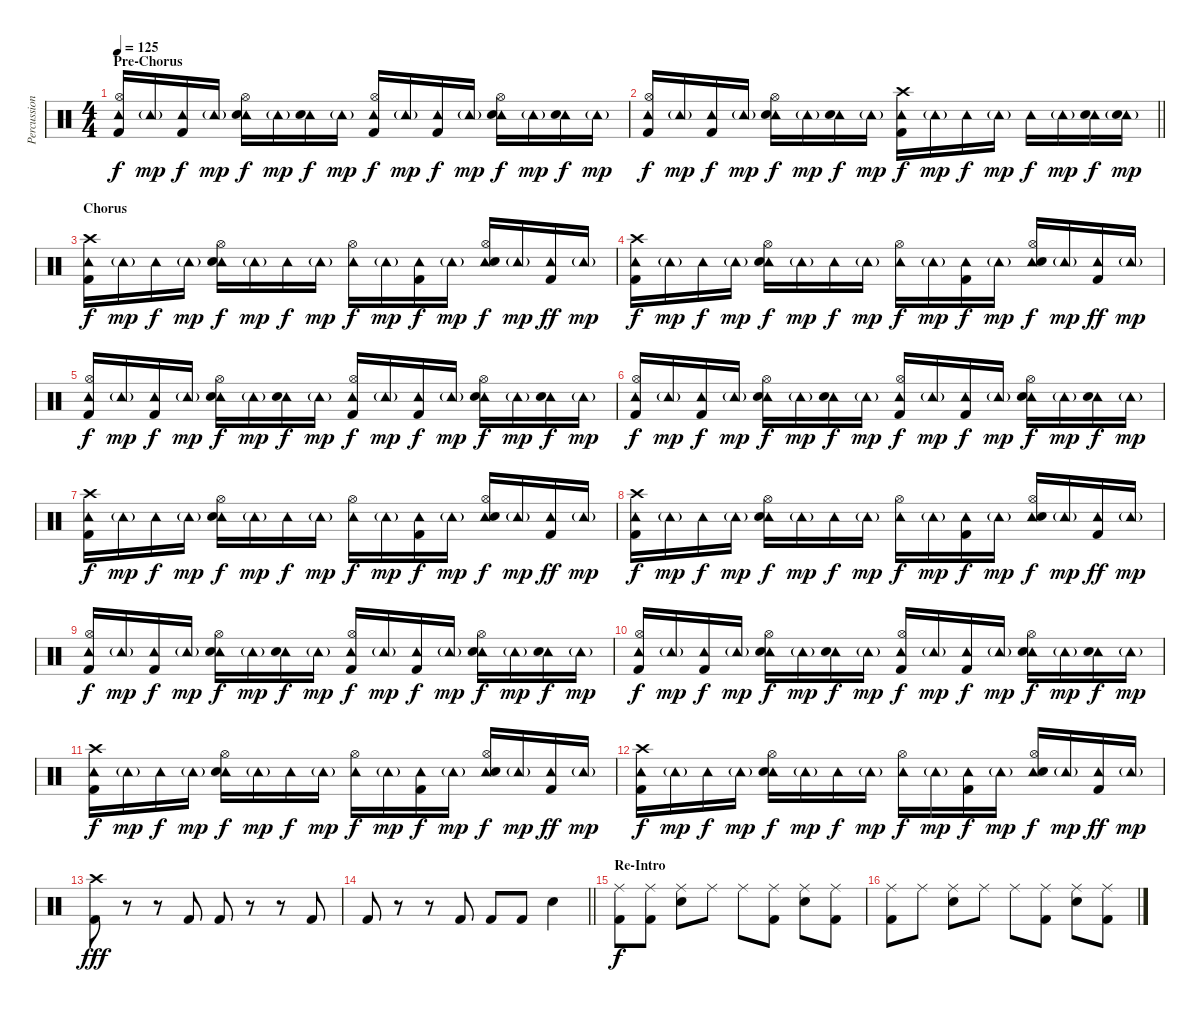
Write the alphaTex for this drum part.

\track ("Percussion" "Percussion") {instrument percussion}
\staff {score}
\articulation defaults
\ts (4 4)
\section ("" "Pre-Chorus")
\tempo 125
\clef neutral
\ks c
("Tambourine (hit)" "Hi-Hat (open)" "Kick (hit) 2").16{dy f} "Tambourine (hit)"{g}.16{dy mp} ("Tambourine (hit)" "Kick (hit) 2").16{dy f} "Tambourine (hit)"{g}.16{dy mp} ("Tambourine (hit)" "Hi-Hat (open)" "Electric Snare (hit)").16{dy f} "Tambourine (hit)"{g}.16{dy mp} ("Tambourine (hit)" "Electric Snare (hit)").16{dy f} "Tambourine (hit)"{g}.16{dy mp} ("Tambourine (hit)" "Hi-Hat (open)" "Kick (hit) 2").16{dy f} "Tambourine (hit)"{g}.16{dy mp} ("Tambourine (hit)" "Kick (hit) 2").16{dy f} "Tambourine (hit)"{g}.16{dy mp} ("Tambourine (hit)" "Hi-Hat (open)" "Electric Snare (hit)").16{dy f} "Tambourine (hit)"{g}.16{dy mp} ("Tambourine (hit)" "Electric Snare (hit)").16{dy f} "Tambourine (hit)"{g}.16{dy mp} |
\barLineRight lightlight
("Tambourine (hit)" "Hi-Hat (open)" "Kick (hit) 2").16{dy f} "Tambourine (hit)"{g}.16{dy mp} ("Tambourine (hit)" "Kick (hit) 2").16{dy f} "Tambourine (hit)"{g}.16{dy mp} ("Tambourine (hit)" "Hi-Hat (open)" "Electric Snare (hit)").16{dy f} "Tambourine (hit)"{g}.16{dy mp} ("Tambourine (hit)" "Electric Snare (hit)").16{dy f} "Tambourine (hit)"{g}.16{dy mp} ("Tambourine (hit)" "Crash high (hit)" "Kick (hit) 2").16{dy f} "Tambourine (hit)"{g}.16{dy mp} "Tambourine (hit)".16{dy f} "Tambourine (hit)"{g}.16{dy mp} "Tambourine (hit)".16{dy f} "Tambourine (hit)"{g}.16{dy mp} ("Tambourine (hit)" "Electric Snare (hit)").16{dy f} ("Tambourine (hit)"{g} "Electric Snare (hit)").16{dy mp} |
\section ("" "Chorus")
("Tambourine (hit)" "Crash high (hit)" "Kick (hit) 2").16{dy f} "Tambourine (hit)"{g}.16{dy mp} "Tambourine (hit)".16{dy f} "Tambourine (hit)"{g}.16{dy mp} ("Tambourine (hit)" "Hi-Hat (open)" "Electric Snare (hit)").16{dy f} "Tambourine (hit)"{g}.16{dy mp} "Tambourine (hit)".16{dy f} "Tambourine (hit)"{g}.16{dy mp} ("Tambourine (hit)" "Hi-Hat (open)").16{dy f} "Tambourine (hit)"{g}.16{dy mp} ("Tambourine (hit)" "Kick (hit) 2").16{dy f} "Tambourine (hit)"{g}.16{dy mp} ("Tambourine (hit)" "Hi-Hat (open)" "Electric Snare (hit)").16{dy f} "Tambourine (hit)"{g}.16{dy mp} ("Tambourine (hit)" "Kick (hit) 2").16{dy ff} "Tambourine (hit)"{g}.16{dy mp} |
("Tambourine (hit)" "Crash high (hit)" "Kick (hit) 2").16{dy f} "Tambourine (hit)"{g}.16{dy mp} "Tambourine (hit)".16{dy f} "Tambourine (hit)"{g}.16{dy mp} ("Tambourine (hit)" "Hi-Hat (open)" "Electric Snare (hit)").16{dy f} "Tambourine (hit)"{g}.16{dy mp} "Tambourine (hit)".16{dy f} "Tambourine (hit)"{g}.16{dy mp} ("Tambourine (hit)" "Hi-Hat (open)").16{dy f} "Tambourine (hit)"{g}.16{dy mp} ("Tambourine (hit)" "Kick (hit) 2").16{dy f} "Tambourine (hit)"{g}.16{dy mp} ("Tambourine (hit)" "Hi-Hat (open)" "Electric Snare (hit)").16{dy f} "Tambourine (hit)"{g}.16{dy mp} ("Tambourine (hit)" "Kick (hit) 2").16{dy ff} "Tambourine (hit)"{g}.16{dy mp} |
("Tambourine (hit)" "Hi-Hat (open)" "Kick (hit) 2").16{dy f} "Tambourine (hit)"{g}.16{dy mp} ("Tambourine (hit)" "Kick (hit) 2").16{dy f} "Tambourine (hit)"{g}.16{dy mp} ("Tambourine (hit)" "Hi-Hat (open)" "Electric Snare (hit)").16{dy f} "Tambourine (hit)"{g}.16{dy mp} ("Tambourine (hit)" "Electric Snare (hit)").16{dy f} "Tambourine (hit)"{g}.16{dy mp} ("Tambourine (hit)" "Hi-Hat (open)" "Kick (hit) 2").16{dy f} "Tambourine (hit)"{g}.16{dy mp} ("Tambourine (hit)" "Kick (hit) 2").16{dy f} "Tambourine (hit)"{g}.16{dy mp} ("Tambourine (hit)" "Hi-Hat (open)" "Electric Snare (hit)").16{dy f} "Tambourine (hit)"{g}.16{dy mp} ("Tambourine (hit)" "Electric Snare (hit)").16{dy f} "Tambourine (hit)"{g}.16{dy mp} |
("Tambourine (hit)" "Hi-Hat (open)" "Kick (hit) 2").16{dy f} "Tambourine (hit)"{g}.16{dy mp} ("Tambourine (hit)" "Kick (hit) 2").16{dy f} "Tambourine (hit)"{g}.16{dy mp} ("Tambourine (hit)" "Hi-Hat (open)" "Electric Snare (hit)").16{dy f} "Tambourine (hit)"{g}.16{dy mp} ("Tambourine (hit)" "Electric Snare (hit)").16{dy f} "Tambourine (hit)"{g}.16{dy mp} ("Tambourine (hit)" "Hi-Hat (open)" "Kick (hit) 2").16{dy f} "Tambourine (hit)"{g}.16{dy mp} ("Tambourine (hit)" "Kick (hit) 2").16{dy f} "Tambourine (hit)"{g}.16{dy mp} ("Tambourine (hit)" "Hi-Hat (open)" "Electric Snare (hit)").16{dy f} "Tambourine (hit)"{g}.16{dy mp} ("Tambourine (hit)" "Electric Snare (hit)").16{dy f} "Tambourine (hit)"{g}.16{dy mp} |
("Tambourine (hit)" "Crash high (hit)" "Kick (hit) 2").16{dy f} "Tambourine (hit)"{g}.16{dy mp} "Tambourine (hit)".16{dy f} "Tambourine (hit)"{g}.16{dy mp} ("Tambourine (hit)" "Hi-Hat (open)" "Electric Snare (hit)").16{dy f} "Tambourine (hit)"{g}.16{dy mp} "Tambourine (hit)".16{dy f} "Tambourine (hit)"{g}.16{dy mp} ("Tambourine (hit)" "Hi-Hat (open)").16{dy f} "Tambourine (hit)"{g}.16{dy mp} ("Tambourine (hit)" "Kick (hit) 2").16{dy f} "Tambourine (hit)"{g}.16{dy mp} ("Tambourine (hit)" "Hi-Hat (open)" "Electric Snare (hit)").16{dy f} "Tambourine (hit)"{g}.16{dy mp} ("Tambourine (hit)" "Kick (hit) 2").16{dy ff} "Tambourine (hit)"{g}.16{dy mp} |
("Tambourine (hit)" "Crash high (hit)" "Kick (hit) 2").16{dy f} "Tambourine (hit)"{g}.16{dy mp} "Tambourine (hit)".16{dy f} "Tambourine (hit)"{g}.16{dy mp} ("Tambourine (hit)" "Hi-Hat (open)" "Electric Snare (hit)").16{dy f} "Tambourine (hit)"{g}.16{dy mp} "Tambourine (hit)".16{dy f} "Tambourine (hit)"{g}.16{dy mp} ("Tambourine (hit)" "Hi-Hat (open)").16{dy f} "Tambourine (hit)"{g}.16{dy mp} ("Tambourine (hit)" "Kick (hit) 2").16{dy f} "Tambourine (hit)"{g}.16{dy mp} ("Tambourine (hit)" "Hi-Hat (open)" "Electric Snare (hit)").16{dy f} "Tambourine (hit)"{g}.16{dy mp} ("Tambourine (hit)" "Kick (hit) 2").16{dy ff} "Tambourine (hit)"{g}.16{dy mp} |
("Tambourine (hit)" "Hi-Hat (open)" "Kick (hit) 2").16{dy f} "Tambourine (hit)"{g}.16{dy mp} ("Tambourine (hit)" "Kick (hit) 2").16{dy f} "Tambourine (hit)"{g}.16{dy mp} ("Tambourine (hit)" "Hi-Hat (open)" "Electric Snare (hit)").16{dy f} "Tambourine (hit)"{g}.16{dy mp} ("Tambourine (hit)" "Electric Snare (hit)").16{dy f} "Tambourine (hit)"{g}.16{dy mp} ("Tambourine (hit)" "Hi-Hat (open)" "Kick (hit) 2").16{dy f} "Tambourine (hit)"{g}.16{dy mp} ("Tambourine (hit)" "Kick (hit) 2").16{dy f} "Tambourine (hit)"{g}.16{dy mp} ("Tambourine (hit)" "Hi-Hat (open)" "Electric Snare (hit)").16{dy f} "Tambourine (hit)"{g}.16{dy mp} ("Tambourine (hit)" "Electric Snare (hit)").16{dy f} "Tambourine (hit)"{g}.16{dy mp} |
("Tambourine (hit)" "Hi-Hat (open)" "Kick (hit) 2").16{dy f} "Tambourine (hit)"{g}.16{dy mp} ("Tambourine (hit)" "Kick (hit) 2").16{dy f} "Tambourine (hit)"{g}.16{dy mp} ("Tambourine (hit)" "Hi-Hat (open)" "Electric Snare (hit)").16{dy f} "Tambourine (hit)"{g}.16{dy mp} ("Tambourine (hit)" "Electric Snare (hit)").16{dy f} "Tambourine (hit)"{g}.16{dy mp} ("Tambourine (hit)" "Hi-Hat (open)" "Kick (hit) 2").16{dy f} "Tambourine (hit)"{g}.16{dy mp} ("Tambourine (hit)" "Kick (hit) 2").16{dy f} "Tambourine (hit)"{g}.16{dy mp} ("Tambourine (hit)" "Hi-Hat (open)" "Electric Snare (hit)").16{dy f} "Tambourine (hit)"{g}.16{dy mp} ("Tambourine (hit)" "Electric Snare (hit)").16{dy f} "Tambourine (hit)"{g}.16{dy mp} |
("Tambourine (hit)" "Crash high (hit)" "Kick (hit) 2").16{dy f} "Tambourine (hit)"{g}.16{dy mp} "Tambourine (hit)".16{dy f} "Tambourine (hit)"{g}.16{dy mp} ("Tambourine (hit)" "Hi-Hat (open)" "Electric Snare (hit)").16{dy f} "Tambourine (hit)"{g}.16{dy mp} "Tambourine (hit)".16{dy f} "Tambourine (hit)"{g}.16{dy mp} ("Tambourine (hit)" "Hi-Hat (open)").16{dy f} "Tambourine (hit)"{g}.16{dy mp} ("Tambourine (hit)" "Kick (hit) 2").16{dy f} "Tambourine (hit)"{g}.16{dy mp} ("Tambourine (hit)" "Hi-Hat (open)" "Electric Snare (hit)").16{dy f} "Tambourine (hit)"{g}.16{dy mp} ("Tambourine (hit)" "Kick (hit) 2").16{dy ff} "Tambourine (hit)"{g}.16{dy mp} |
("Tambourine (hit)" "Crash high (hit)" "Kick (hit) 2").16{dy f} "Tambourine (hit)"{g}.16{dy mp} "Tambourine (hit)".16{dy f} "Tambourine (hit)"{g}.16{dy mp} ("Tambourine (hit)" "Hi-Hat (open)" "Electric Snare (hit)").16{dy f} "Tambourine (hit)"{g}.16{dy mp} "Tambourine (hit)".16{dy f} "Tambourine (hit)"{g}.16{dy mp} ("Tambourine (hit)" "Hi-Hat (open)").16{dy f} "Tambourine (hit)"{g}.16{dy mp} ("Tambourine (hit)" "Kick (hit) 2").16{dy f} "Tambourine (hit)"{g}.16{dy mp} ("Tambourine (hit)" "Hi-Hat (open)" "Electric Snare (hit)").16{dy f} "Tambourine (hit)"{g}.16{dy mp} ("Tambourine (hit)" "Kick (hit) 2").16{dy ff} "Tambourine (hit)"{g}.16{dy mp} |
("Crash high (hit)" "Kick (hit) 2").8{dy fff} r.8 r.8 "Kick (hit) 2".8 "Kick (hit) 2".8 r.8 r.8 "Kick (hit) 2".8 |
\barLineRight lightlight "Kick (hit) 2".8
r.8 r.8 "Kick (hit) 2".8 "Kick (hit) 2".8 "Kick (hit) 2".8 "Electric Snare (hit)".4 |
\section ("" "Re-Intro")
("Ride (middle)" "Kick (hit) 2").8{dy f} ("Ride (middle)" "Kick (hit) 2").8 ("Ride (middle)" "Electric Snare (hit)").8 "Ride (middle)".8 "Ride (middle)".8 ("Ride (middle)" "Kick (hit) 2").8 ("Ride (middle)" "Electric Snare (hit)").8 ("Ride (middle)" "Kick (hit) 2").8 |
("Ride (middle)" "Kick (hit) 2").8 "Ride (middle)".8 ("Ride (middle)" "Electric Snare (hit)").8 "Ride (middle)".8 "Ride (middle)".8 ("Ride (middle)" "Kick (hit) 2").8 ("Ride (middle)" "Electric Snare (hit)").8 ("Ride (middle)" "Kick (hit) 2").8
